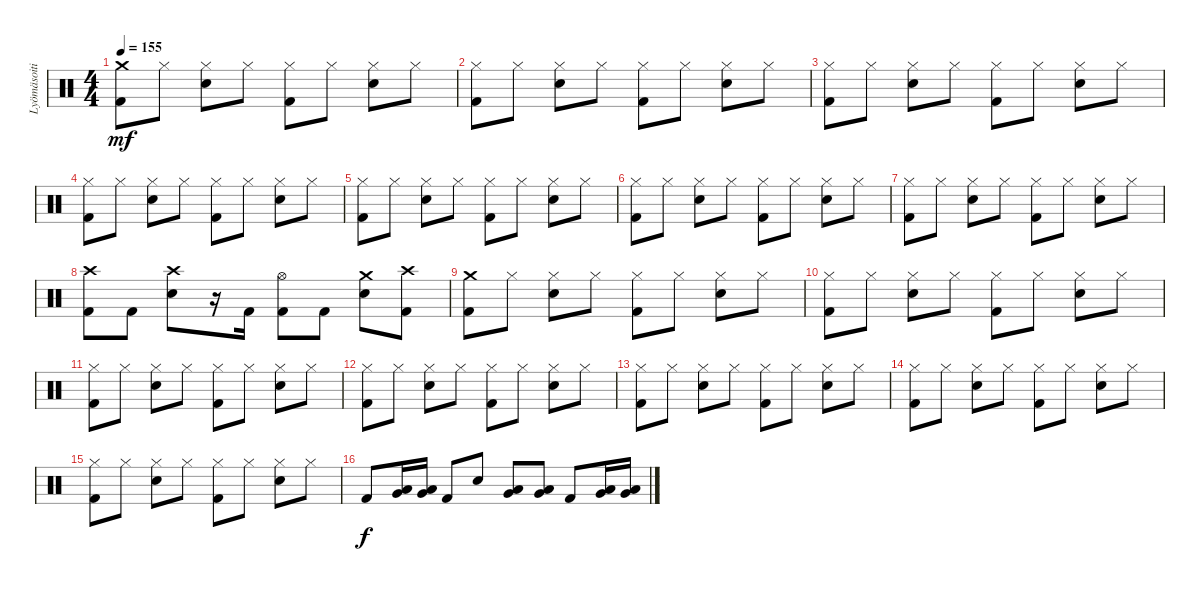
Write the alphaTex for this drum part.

\track ("Lyömäsoitin" "Lyömäsoiti") {instrument percussion}
\staff {score}
\articulation defaults
\ts (4 4)
\tempo 155
\clef neutral
\ks c
("Crash medium (hit)" "Kick (hit) 2").8{dy mf} "Hi-Hat (closed)".8 ("Hi-Hat (closed)" "Snare (hit) 2").8 "Hi-Hat (closed)".8 ("Hi-Hat (closed)" "Kick (hit) 2").8 "Hi-Hat (closed)".8 ("Hi-Hat (closed)" "Snare (hit) 2").8 "Hi-Hat (closed)".8 |
("Hi-Hat (closed)" "Kick (hit) 2").8 "Hi-Hat (closed)".8 ("Hi-Hat (closed)" "Snare (hit) 2").8 "Hi-Hat (closed)".8 ("Hi-Hat (closed)" "Kick (hit) 2").8 "Hi-Hat (closed)".8 ("Hi-Hat (closed)" "Snare (hit) 2").8 "Hi-Hat (closed)".8 |
("Hi-Hat (closed)" "Kick (hit) 2").8 "Hi-Hat (closed)".8 ("Hi-Hat (closed)" "Snare (hit) 2").8 "Hi-Hat (closed)".8 ("Hi-Hat (closed)" "Kick (hit) 2").8 "Hi-Hat (closed)".8 ("Hi-Hat (closed)" "Snare (hit) 2").8 "Hi-Hat (closed)".8 |
("Hi-Hat (closed)" "Kick (hit) 2").8 "Hi-Hat (closed)".8 ("Hi-Hat (closed)" "Snare (hit) 2").8 "Hi-Hat (closed)".8 ("Hi-Hat (closed)" "Kick (hit) 2").8 "Hi-Hat (closed)".8 ("Hi-Hat (closed)" "Snare (hit) 2").8 "Hi-Hat (closed)".8 |
("Hi-Hat (closed)" "Kick (hit) 2").8 "Hi-Hat (closed)".8 ("Hi-Hat (closed)" "Snare (hit) 2").8 "Hi-Hat (closed)".8 ("Hi-Hat (closed)" "Kick (hit) 2").8 "Hi-Hat (closed)".8 ("Hi-Hat (closed)" "Snare (hit) 2").8 "Hi-Hat (closed)".8 |
("Hi-Hat (closed)" "Kick (hit) 2").8 "Hi-Hat (closed)".8 ("Hi-Hat (closed)" "Snare (hit) 2").8 "Hi-Hat (closed)".8 ("Hi-Hat (closed)" "Kick (hit) 2").8 "Hi-Hat (closed)".8 ("Hi-Hat (closed)" "Snare (hit) 2").8 "Hi-Hat (closed)".8 |
("Hi-Hat (closed)" "Kick (hit) 2").8 "Hi-Hat (closed)".8 ("Hi-Hat (closed)" "Snare (hit) 2").8 "Hi-Hat (closed)".8 ("Hi-Hat (closed)" "Kick (hit) 2").8 "Hi-Hat (closed)".8 ("Hi-Hat (closed)" "Snare (hit) 2").8 "Hi-Hat (closed)".8 |
("Crash high (hit)" "Kick (hit) 2").8 "Kick (hit) 2".8 ("Crash high (hit)" "Snare (hit) 2").8 r.16 "Kick (hit) 2".16 ("Hi-Hat (open)" "Kick (hit) 2").8 "Kick (hit) 2".8 ("Crash medium (hit)" "Snare (hit) 2").8 ("Crash high (hit)" "Kick (hit) 2").8 |
("Crash medium (hit)" "Kick (hit) 2").8 "Hi-Hat (closed)".8 ("Hi-Hat (closed)" "Snare (hit) 2").8 "Hi-Hat (closed)".8 ("Hi-Hat (closed)" "Kick (hit) 2").8 "Hi-Hat (closed)".8 ("Hi-Hat (closed)" "Snare (hit) 2").8 "Hi-Hat (closed)".8 |
("Hi-Hat (closed)" "Kick (hit) 2").8 "Hi-Hat (closed)".8 ("Hi-Hat (closed)" "Snare (hit) 2").8 "Hi-Hat (closed)".8 ("Hi-Hat (closed)" "Kick (hit) 2").8 "Hi-Hat (closed)".8 ("Hi-Hat (closed)" "Snare (hit) 2").8 "Hi-Hat (closed)".8 |
("Hi-Hat (closed)" "Kick (hit) 2").8 "Hi-Hat (closed)".8 ("Hi-Hat (closed)" "Snare (hit) 2").8 "Hi-Hat (closed)".8 ("Hi-Hat (closed)" "Kick (hit) 2").8 "Hi-Hat (closed)".8 ("Hi-Hat (closed)" "Snare (hit) 2").8 "Hi-Hat (closed)".8 |
("Hi-Hat (closed)" "Kick (hit) 2").8 "Hi-Hat (closed)".8 ("Hi-Hat (closed)" "Snare (hit) 2").8 "Hi-Hat (closed)".8 ("Hi-Hat (closed)" "Kick (hit) 2").8 "Hi-Hat (closed)".8 ("Hi-Hat (closed)" "Snare (hit) 2").8 "Hi-Hat (closed)".8 |
("Hi-Hat (closed)" "Kick (hit) 2").8 "Hi-Hat (closed)".8 ("Hi-Hat (closed)" "Snare (hit) 2").8 "Hi-Hat (closed)".8 ("Hi-Hat (closed)" "Kick (hit) 2").8 "Hi-Hat (closed)".8 ("Hi-Hat (closed)" "Snare (hit) 2").8 "Hi-Hat (closed)".8 |
("Hi-Hat (closed)" "Kick (hit) 2").8 "Hi-Hat (closed)".8 ("Hi-Hat (closed)" "Snare (hit) 2").8 "Hi-Hat (closed)".8 ("Hi-Hat (closed)" "Kick (hit) 2").8 "Hi-Hat (closed)".8 ("Hi-Hat (closed)" "Snare (hit) 2").8 "Hi-Hat (closed)".8 |
("Hi-Hat (closed)" "Kick (hit) 2").8 "Hi-Hat (closed)".8 ("Hi-Hat (closed)" "Snare (hit) 2").8 "Hi-Hat (closed)".8 ("Hi-Hat (closed)" "Kick (hit) 2").8 "Hi-Hat (closed)".8 ("Hi-Hat (closed)" "Snare (hit) 2").8 "Hi-Hat (closed)".8 |
"Kick (hit) 2".8{dy f} ("Low Tom (hit)" "Very Low Tom (hit)").16 ("Very Low Tom (hit)" "Low Floor Tom (hit)").16 "Kick (hit) 2".8 "Snare (hit) 2".8 ("Low Tom (hit)" "Very Low Tom (hit)").8 ("Low Tom (hit)" "Very Low Tom (hit)").8 "Kick (hit) 2".8 ("Low Tom (hit)" "Very Low Tom (hit)").16 ("Very Low Tom (hit)" "Low Floor Tom (hit)").16
